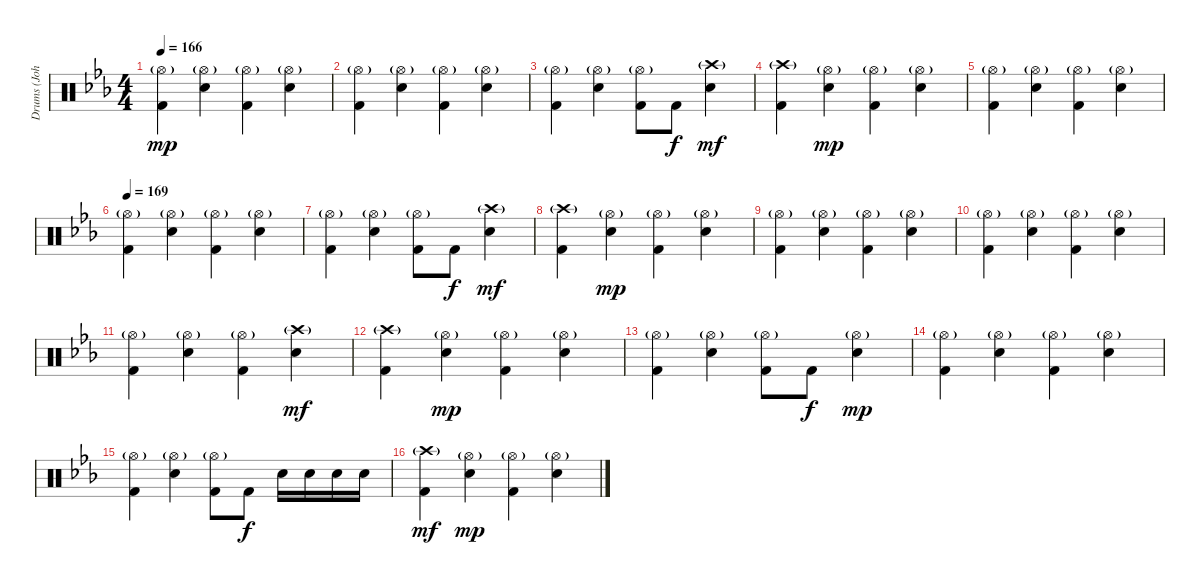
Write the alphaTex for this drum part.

\track ("Drums (John O'Reilly)" "Drums (Joh") {instrument percussion}
\staff {score}
\articulation defaults
\ts (4 4)
\tempo 166
\clef neutral
\ks cminor
("Hi-Hat (open)"{g} "Kick (hit) 2").4{dy mp} ("Hi-Hat (open)"{g} "Electric Snare (hit)").4 ("Hi-Hat (open)"{g} "Kick (hit) 2").4 ("Hi-Hat (open)"{g} "Electric Snare (hit)").4 |
("Hi-Hat (open)"{g} "Kick (hit) 2").4 ("Hi-Hat (open)"{g} "Electric Snare (hit)").4 ("Hi-Hat (open)"{g} "Kick (hit) 2").4 ("Hi-Hat (open)"{g} "Electric Snare (hit)").4 |
("Hi-Hat (open)"{g} "Kick (hit) 2").4 ("Hi-Hat (open)"{g} "Electric Snare (hit)").4 ("Hi-Hat (open)"{g} "Kick (hit) 2").8 "Kick (hit) 2".8{dy f} ("Crash high (hit)"{g} "Electric Snare (hit)").4{dy mf} |
("Crash high (hit)"{g} "Kick (hit) 2").4 ("Hi-Hat (open)"{g} "Electric Snare (hit)").4{dy mp} ("Hi-Hat (open)"{g} "Kick (hit) 2").4 ("Hi-Hat (open)"{g} "Electric Snare (hit)").4 |
("Hi-Hat (open)"{g} "Kick (hit) 2").4 ("Hi-Hat (open)"{g} "Electric Snare (hit)").4 ("Hi-Hat (open)"{g} "Kick (hit) 2").4 ("Hi-Hat (open)"{g} "Electric Snare (hit)").4 |
\tempo 169
("Hi-Hat (open)"{g} "Kick (hit) 2").4 ("Hi-Hat (open)"{g} "Electric Snare (hit)").4 ("Hi-Hat (open)"{g} "Kick (hit) 2").4 ("Hi-Hat (open)"{g} "Electric Snare (hit)").4 |
("Hi-Hat (open)"{g} "Kick (hit) 2").4 ("Hi-Hat (open)"{g} "Electric Snare (hit)").4 ("Hi-Hat (open)"{g} "Kick (hit) 2").8 "Kick (hit) 2".8{dy f} ("Crash high (hit)"{g} "Electric Snare (hit)").4{dy mf} |
("Crash high (hit)"{g} "Kick (hit) 2").4 ("Hi-Hat (open)"{g} "Electric Snare (hit)").4{dy mp} ("Hi-Hat (open)"{g} "Kick (hit) 2").4 ("Hi-Hat (open)"{g} "Electric Snare (hit)").4 |
("Hi-Hat (open)"{g} "Kick (hit) 2").4 ("Hi-Hat (open)"{g} "Electric Snare (hit)").4 ("Hi-Hat (open)"{g} "Kick (hit) 2").4 ("Hi-Hat (open)"{g} "Electric Snare (hit)").4 |
("Hi-Hat (open)"{g} "Kick (hit) 2").4 ("Hi-Hat (open)"{g} "Electric Snare (hit)").4 ("Hi-Hat (open)"{g} "Kick (hit) 2").4 ("Hi-Hat (open)"{g} "Electric Snare (hit)").4 |
("Hi-Hat (open)"{g} "Kick (hit) 2").4 ("Hi-Hat (open)"{g} "Electric Snare (hit)").4 ("Hi-Hat (open)"{g} "Kick (hit) 2").4 ("Crash high (hit)"{g} "Electric Snare (hit)").4{dy mf} |
("Crash high (hit)"{g} "Kick (hit) 2").4 ("Hi-Hat (open)"{g} "Electric Snare (hit)").4{dy mp} ("Hi-Hat (open)"{g} "Kick (hit) 2").4 ("Hi-Hat (open)"{g} "Electric Snare (hit)").4 |
("Hi-Hat (open)"{g} "Kick (hit) 2").4 ("Hi-Hat (open)"{g} "Electric Snare (hit)").4 ("Hi-Hat (open)"{g} "Kick (hit) 2").8 "Kick (hit) 2".8{dy f} ("Hi-Hat (open)"{g} "Electric Snare (hit)").4{dy mp} |
("Hi-Hat (open)"{g} "Kick (hit) 2").4 ("Hi-Hat (open)"{g} "Electric Snare (hit)").4 ("Hi-Hat (open)"{g} "Kick (hit) 2").4 ("Hi-Hat (open)"{g} "Electric Snare (hit)").4 |
("Hi-Hat (open)"{g} "Kick (hit) 2").4 ("Hi-Hat (open)"{g} "Electric Snare (hit)").4 ("Hi-Hat (open)"{g} "Kick (hit) 2").8 "Kick (hit) 2".8{dy f} "Electric Snare (hit)".16 "Electric Snare (hit)".16 "Electric Snare (hit)".16 "Electric Snare (hit)".16 |
("Crash high (hit)"{g} "Kick (hit) 2").4{dy mf} ("Hi-Hat (open)"{g} "Electric Snare (hit)").4{dy mp} ("Hi-Hat (open)"{g} "Kick (hit) 2").4 ("Hi-Hat (open)"{g} "Electric Snare (hit)").4
